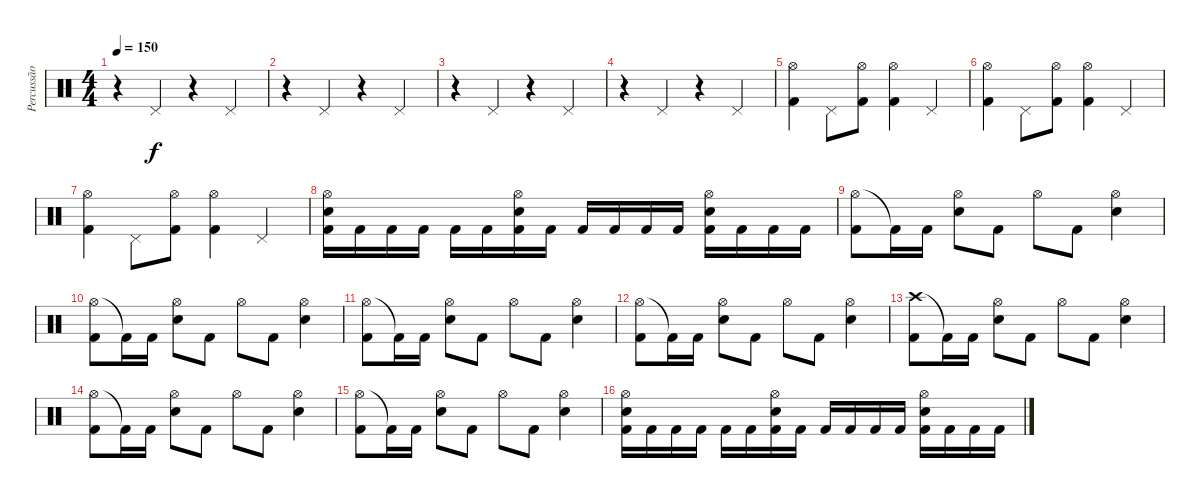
\track ("Percussão" "Percussão") {instrument percussion}
\staff {score}
\articulation defaults
\ts (4 4)
\tempo 150
\clef neutral
\ks c
r.4{dy f} "Pedal Hi-Hat (hit)".4 r.4 "Pedal Hi-Hat (hit)".4 |
r.4 "Pedal Hi-Hat (hit)".4 r.4 "Pedal Hi-Hat (hit)".4 |
r.4 "Pedal Hi-Hat (hit)".4 r.4 "Pedal Hi-Hat (hit)".4 |
r.4 "Pedal Hi-Hat (hit)".4 r.4 "Pedal Hi-Hat (hit)".4 |
("Hi-Hat (open)" "Kick (hit) 2").4 "Pedal Hi-Hat (hit)".8 ("Hi-Hat (open)" "Kick (hit) 2").8 ("Hi-Hat (open)" "Kick (hit) 2").4 "Pedal Hi-Hat (hit)".4 |
("Hi-Hat (open)" "Kick (hit) 2").4 "Pedal Hi-Hat (hit)".8 ("Hi-Hat (open)" "Kick (hit) 2").8 ("Hi-Hat (open)" "Kick (hit) 2").4 "Pedal Hi-Hat (hit)".4 |
("Hi-Hat (open)" "Kick (hit) 2").4 "Pedal Hi-Hat (hit)".8 ("Hi-Hat (open)" "Kick (hit) 2").8 ("Hi-Hat (open)" "Kick (hit) 2").4 "Pedal Hi-Hat (hit)".4 |
("Hi-Hat (open)" "Electric Snare (hit)" "Kick (hit) 2").16 "Kick (hit) 2".16 "Kick (hit) 2".16 "Kick (hit) 2".16 "Kick (hit) 2".16 "Kick (hit) 2".16 ("Hi-Hat (open)" "Electric Snare (hit)" "Kick (hit) 2").16 "Kick (hit) 2".16 "Kick (hit) 2".16 "Kick (hit) 2".16 "Kick (hit) 2".16 "Kick (hit) 2".16 ("Hi-Hat (open)" "Electric Snare (hit)" "Kick (hit) 2").16 "Kick (hit) 2".16 "Kick (hit) 2".16 "Kick (hit) 2".16 |
("Hi-Hat (open)" "Kick (hit) 2").8 "Kick (hit) 2"{t}.16 "Kick (hit) 2".16 ("Hi-Hat (open)" "Electric Snare (hit)").8 "Kick (hit) 2".8 "Hi-Hat (open)".8 "Kick (hit) 2".8 ("Hi-Hat (open)" "Electric Snare (hit)").4 |
("Hi-Hat (open)" "Kick (hit) 2").8 "Kick (hit) 2"{t}.16 "Kick (hit) 2".16 ("Hi-Hat (open)" "Electric Snare (hit)").8 "Kick (hit) 2".8 "Hi-Hat (open)".8 "Kick (hit) 2".8 ("Hi-Hat (open)" "Electric Snare (hit)").4 |
("Hi-Hat (open)" "Kick (hit) 2").8 "Kick (hit) 2"{t}.16 "Kick (hit) 2".16 ("Hi-Hat (open)" "Electric Snare (hit)").8 "Kick (hit) 2".8 "Hi-Hat (open)".8 "Kick (hit) 2".8 ("Hi-Hat (open)" "Electric Snare (hit)").4 |
("Hi-Hat (open)" "Kick (hit) 2").8 "Kick (hit) 2"{t}.16 "Kick (hit) 2".16 ("Hi-Hat (open)" "Electric Snare (hit)").8 "Kick (hit) 2".8 "Hi-Hat (open)".8 "Kick (hit) 2".8 ("Hi-Hat (open)" "Electric Snare (hit)").4 |
("Crash high (hit)" "Kick (hit) 2").8 "Kick (hit) 2"{t}.16 "Kick (hit) 2".16 ("Hi-Hat (open)" "Electric Snare (hit)").8 "Kick (hit) 2".8 "Hi-Hat (open)".8 "Kick (hit) 2".8 ("Hi-Hat (open)" "Electric Snare (hit)").4 |
("Hi-Hat (open)" "Kick (hit) 2").8 "Kick (hit) 2"{t}.16 "Kick (hit) 2".16 ("Hi-Hat (open)" "Electric Snare (hit)").8 "Kick (hit) 2".8 "Hi-Hat (open)".8 "Kick (hit) 2".8 ("Hi-Hat (open)" "Electric Snare (hit)").4 |
("Hi-Hat (open)" "Kick (hit) 2").8 "Kick (hit) 2"{t}.16 "Kick (hit) 2".16 ("Hi-Hat (open)" "Electric Snare (hit)").8 "Kick (hit) 2".8 "Hi-Hat (open)".8 "Kick (hit) 2".8 ("Hi-Hat (open)" "Electric Snare (hit)").4 |
("Hi-Hat (open)" "Electric Snare (hit)" "Kick (hit) 2").16 "Kick (hit) 2".16 "Kick (hit) 2".16 "Kick (hit) 2".16 "Kick (hit) 2".16 "Kick (hit) 2".16 ("Hi-Hat (open)" "Electric Snare (hit)" "Kick (hit) 2").16 "Kick (hit) 2".16 "Kick (hit) 2".16 "Kick (hit) 2".16 "Kick (hit) 2".16 "Kick (hit) 2".16 ("Hi-Hat (open)" "Electric Snare (hit)" "Kick (hit) 2").16 "Kick (hit) 2".16 "Kick (hit) 2".16 "Kick (hit) 2".16
